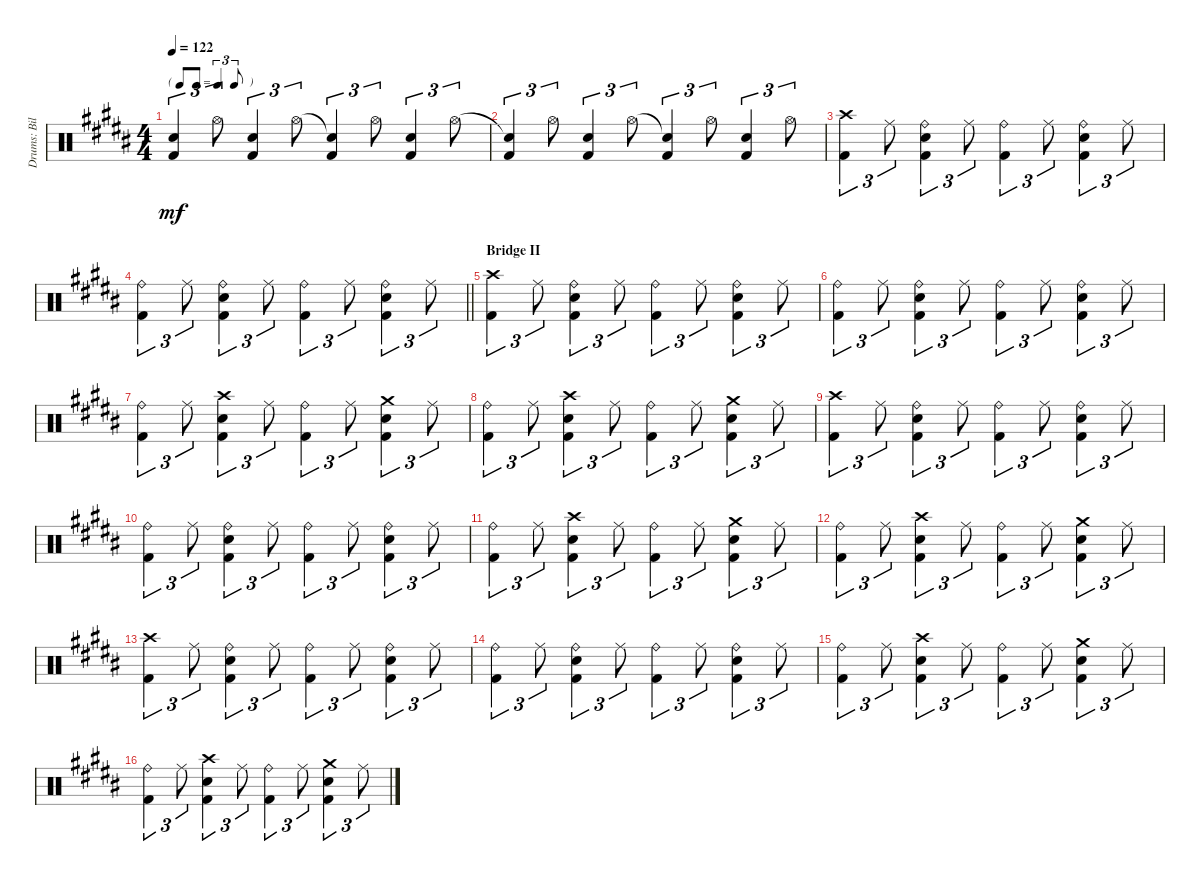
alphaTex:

\track ("Drums: Bill" "Drums: Bil") {instrument percussion}
\staff {score}
\articulation defaults
\ts (4 4)
\tf triplet8th
\tempo 122
\clef neutral
\ks b
("Snare (hit)"{t} "Kick (hit) 2").4{tu (3 2) dy mf} "Hi-Hat (open)".8{tu (3 2)} ("Electric Snare (hit)" "Kick (hit) 2").4{tu (3 2)} "Hi-Hat (open)".8{tu (3 2)} ("Snare (hit)"{t} "Kick (hit) 2").4{tu (3 2)} "Hi-Hat (open)".8{tu (3 2)} ("Electric Snare (hit)" "Kick (hit) 2").4{tu (3 2)} "Hi-Hat (open)".8{tu (3 2)} |
("Snare (hit)"{t} "Kick (hit) 2").4{tu (3 2)} "Hi-Hat (open)".8{tu (3 2)} ("Electric Snare (hit)" "Kick (hit) 2").4{tu (3 2)} "Hi-Hat (open)".8{tu (3 2)} ("Snare (hit)"{t} "Kick (hit) 2").4{tu (3 2)} "Hi-Hat (open)".8{tu (3 2)} ("Electric Snare (hit)" "Kick (hit) 2").4{tu (3 2)} "Hi-Hat (open)".8{tu (3 2)} |
("Crash high (hit)" "Kick (hit) 2").4{tu (3 2)} "Ride (middle)".8{tu (3 2)} ("Ride (bell)" "Electric Snare (hit)" "Kick (hit) 2").4{tu (3 2)} "Ride (middle)".8{tu (3 2)} ("Ride (bell)" "Kick (hit) 2").4{tu (3 2)} "Ride (middle)".8{tu (3 2)} ("Ride (bell)" "Electric Snare (hit)" "Kick (hit) 2").4{tu (3 2)} "Ride (middle)".8{tu (3 2)} |
\barLineRight lightlight
("Ride (bell)" "Kick (hit) 2").4{tu (3 2)} "Ride (middle)".8{tu (3 2)} ("Ride (bell)" "Electric Snare (hit)" "Kick (hit) 2").4{tu (3 2)} "Ride (middle)".8{tu (3 2)} ("Ride (bell)" "Kick (hit) 2").4{tu (3 2)} "Ride (middle)".8{tu (3 2)} ("Ride (bell)" "Electric Snare (hit)" "Kick (hit) 2").4{tu (3 2)} "Ride (middle)".8{tu (3 2)} |
\section ("" "Bridge II")
("Crash high (hit)" "Kick (hit) 2").4{tu (3 2)} "Ride (middle)".8{tu (3 2)} ("Ride (bell)" "Electric Snare (hit)" "Kick (hit) 2").4{tu (3 2)} "Ride (middle)".8{tu (3 2)} ("Ride (bell)" "Kick (hit) 2").4{tu (3 2)} "Ride (middle)".8{tu (3 2)} ("Ride (bell)" "Electric Snare (hit)" "Kick (hit) 2").4{tu (3 2)} "Ride (middle)".8{tu (3 2)} |
("Ride (bell)" "Kick (hit) 2").4{tu (3 2)} "Ride (middle)".8{tu (3 2)} ("Ride (bell)" "Electric Snare (hit)" "Kick (hit) 2").4{tu (3 2)} "Ride (middle)".8{tu (3 2)} ("Ride (bell)" "Kick (hit) 2").4{tu (3 2)} "Ride (middle)".8{tu (3 2)} ("Ride (bell)" "Electric Snare (hit)" "Kick (hit) 2").4{tu (3 2)} "Ride (middle)".8{tu (3 2)} |
("Ride (bell)" "Kick (hit) 2").4{tu (3 2)} "Ride (middle)".8{tu (3 2)} ("Crash high (hit)" "Electric Snare (hit)" "Kick (hit) 2").4{tu (3 2)} "Ride (middle)".8{tu (3 2)} ("Ride (bell)" "Kick (hit) 2").4{tu (3 2)} "Ride (middle)".8{tu (3 2)} ("Crash medium (hit)" "Electric Snare (hit)" "Kick (hit) 2").4{tu (3 2)} "Ride (middle)".8{tu (3 2)} |
("Ride (bell)" "Kick (hit) 2").4{tu (3 2)} "Ride (middle)".8{tu (3 2)} ("Crash high (hit)" "Electric Snare (hit)" "Kick (hit) 2").4{tu (3 2)} "Ride (middle)".8{tu (3 2)} ("Ride (bell)" "Kick (hit) 2").4{tu (3 2)} "Ride (middle)".8{tu (3 2)} ("Crash medium (hit)" "Electric Snare (hit)" "Kick (hit) 2").4{tu (3 2)} "Ride (middle)".8{tu (3 2)} |
("Crash high (hit)" "Kick (hit) 2").4{tu (3 2)} "Ride (middle)".8{tu (3 2)} ("Ride (bell)" "Electric Snare (hit)" "Kick (hit) 2").4{tu (3 2)} "Ride (middle)".8{tu (3 2)} ("Ride (bell)" "Kick (hit) 2").4{tu (3 2)} "Ride (middle)".8{tu (3 2)} ("Ride (bell)" "Electric Snare (hit)" "Kick (hit) 2").4{tu (3 2)} "Ride (middle)".8{tu (3 2)} |
("Ride (bell)" "Kick (hit) 2").4{tu (3 2)} "Ride (middle)".8{tu (3 2)} ("Ride (bell)" "Electric Snare (hit)" "Kick (hit) 2").4{tu (3 2)} "Ride (middle)".8{tu (3 2)} ("Ride (bell)" "Kick (hit) 2").4{tu (3 2)} "Ride (middle)".8{tu (3 2)} ("Ride (bell)" "Electric Snare (hit)" "Kick (hit) 2").4{tu (3 2)} "Ride (middle)".8{tu (3 2)} |
("Ride (bell)" "Kick (hit) 2").4{tu (3 2)} "Ride (middle)".8{tu (3 2)} ("Crash high (hit)" "Electric Snare (hit)" "Kick (hit) 2").4{tu (3 2)} "Ride (middle)".8{tu (3 2)} ("Ride (bell)" "Kick (hit) 2").4{tu (3 2)} "Ride (middle)".8{tu (3 2)} ("Crash medium (hit)" "Electric Snare (hit)" "Kick (hit) 2").4{tu (3 2)} "Ride (middle)".8{tu (3 2)} |
("Ride (bell)" "Kick (hit) 2").4{tu (3 2)} "Ride (middle)".8{tu (3 2)} ("Crash high (hit)" "Electric Snare (hit)" "Kick (hit) 2").4{tu (3 2)} "Ride (middle)".8{tu (3 2)} ("Ride (bell)" "Kick (hit) 2").4{tu (3 2)} "Ride (middle)".8{tu (3 2)} ("Crash medium (hit)" "Electric Snare (hit)" "Kick (hit) 2").4{tu (3 2)} "Ride (middle)".8{tu (3 2)} |
("Crash high (hit)" "Kick (hit) 2").4{tu (3 2)} "Ride (middle)".8{tu (3 2)} ("Ride (bell)" "Electric Snare (hit)" "Kick (hit) 2").4{tu (3 2)} "Ride (middle)".8{tu (3 2)} ("Ride (bell)" "Kick (hit) 2").4{tu (3 2)} "Ride (middle)".8{tu (3 2)} ("Ride (bell)" "Electric Snare (hit)" "Kick (hit) 2").4{tu (3 2)} "Ride (middle)".8{tu (3 2)} |
("Ride (bell)" "Kick (hit) 2").4{tu (3 2)} "Ride (middle)".8{tu (3 2)} ("Ride (bell)" "Electric Snare (hit)" "Kick (hit) 2").4{tu (3 2)} "Ride (middle)".8{tu (3 2)} ("Ride (bell)" "Kick (hit) 2").4{tu (3 2)} "Ride (middle)".8{tu (3 2)} ("Ride (bell)" "Electric Snare (hit)" "Kick (hit) 2").4{tu (3 2)} "Ride (middle)".8{tu (3 2)} |
("Ride (bell)" "Kick (hit) 2").4{tu (3 2)} "Ride (middle)".8{tu (3 2)} ("Crash high (hit)" "Electric Snare (hit)" "Kick (hit) 2").4{tu (3 2)} "Ride (middle)".8{tu (3 2)} ("Ride (bell)" "Kick (hit) 2").4{tu (3 2)} "Ride (middle)".8{tu (3 2)} ("Crash medium (hit)" "Electric Snare (hit)" "Kick (hit) 2").4{tu (3 2)} "Ride (middle)".8{tu (3 2)} |
("Ride (bell)" "Kick (hit) 2").4{tu (3 2)} "Ride (middle)".8{tu (3 2)} ("Crash high (hit)" "Electric Snare (hit)" "Kick (hit) 2").4{tu (3 2)} "Ride (middle)".8{tu (3 2)} ("Ride (bell)" "Kick (hit) 2").4{tu (3 2)} "Ride (middle)".8{tu (3 2)} ("Crash medium (hit)" "Electric Snare (hit)" "Kick (hit) 2").4{tu (3 2)} "Ride (middle)".8{tu (3 2)}
